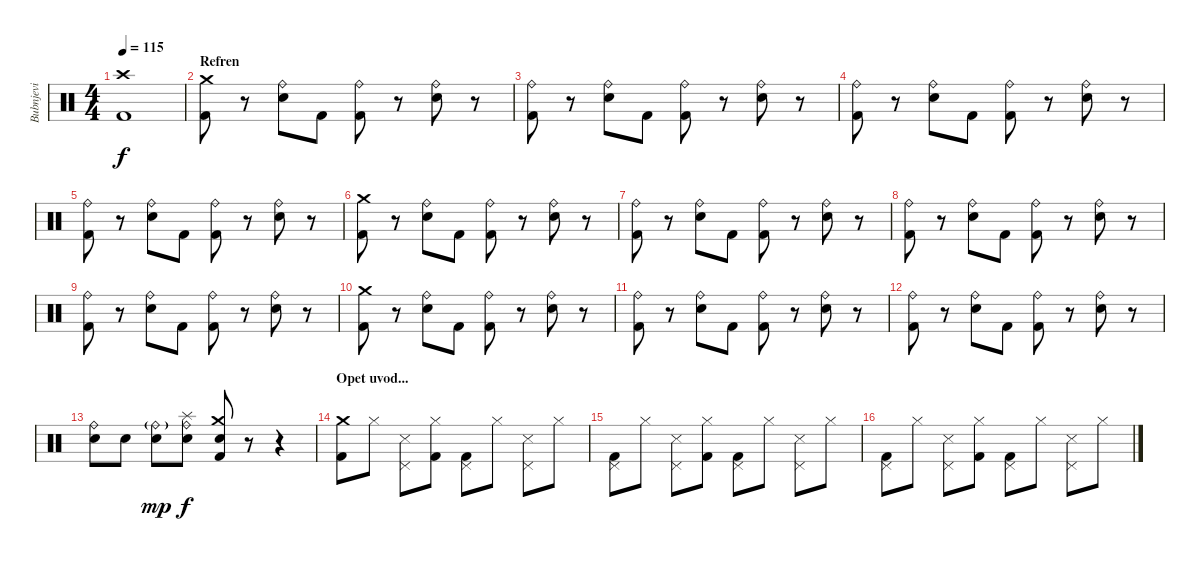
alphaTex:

\track ("Bubnjevi" "Bubnjevi") {instrument percussion}
\staff {score}
\articulation defaults
\ts (4 4)
\tempo 115
\clef neutral
\ks c
("Crash high (hit)" "Kick (hit) 2").1{dy f} |
\section ("" "Refren")
("Crash medium (hit)" "Kick (hit) 2").8 r.8 ("Ride (bell)" "Electric Snare (hit)").8 "Kick (hit) 2".8 ("Ride (bell)" "Kick (hit) 2").8 r.8 ("Ride (bell)" "Electric Snare (hit)").8 r.8 |
("Ride (bell)" "Kick (hit) 2").8 r.8 ("Ride (bell)" "Electric Snare (hit)").8 "Kick (hit) 2".8 ("Ride (bell)" "Kick (hit) 2").8 r.8 ("Ride (bell)" "Electric Snare (hit)").8 r.8 |
("Ride (bell)" "Kick (hit) 2").8 r.8 ("Ride (bell)" "Electric Snare (hit)").8 "Kick (hit) 2".8 ("Ride (bell)" "Kick (hit) 2").8 r.8 ("Ride (bell)" "Electric Snare (hit)").8 r.8 |
("Ride (bell)" "Kick (hit) 2").8 r.8 ("Ride (bell)" "Electric Snare (hit)").8 "Kick (hit) 2".8 ("Ride (bell)" "Kick (hit) 2").8 r.8 ("Ride (bell)" "Electric Snare (hit)").8 r.8 |
("Crash medium (hit)" "Kick (hit) 2").8 r.8 ("Ride (bell)" "Electric Snare (hit)").8 "Kick (hit) 2".8 ("Ride (bell)" "Kick (hit) 2").8 r.8 ("Ride (bell)" "Electric Snare (hit)").8 r.8 |
("Ride (bell)" "Kick (hit) 2").8 r.8 ("Ride (bell)" "Electric Snare (hit)").8 "Kick (hit) 2".8 ("Ride (bell)" "Kick (hit) 2").8 r.8 ("Ride (bell)" "Electric Snare (hit)").8 r.8 |
("Ride (bell)" "Kick (hit) 2").8 r.8 ("Ride (bell)" "Electric Snare (hit)").8 "Kick (hit) 2".8 ("Ride (bell)" "Kick (hit) 2").8 r.8 ("Ride (bell)" "Electric Snare (hit)").8 r.8 |
("Ride (bell)" "Kick (hit) 2").8 r.8 ("Ride (bell)" "Electric Snare (hit)").8 "Kick (hit) 2".8 ("Ride (bell)" "Kick (hit) 2").8 r.8 ("Ride (bell)" "Electric Snare (hit)").8 r.8 |
("Crash medium (hit)" "Kick (hit) 2").8 r.8 ("Ride (bell)" "Electric Snare (hit)").8 "Kick (hit) 2".8 ("Ride (bell)" "Kick (hit) 2").8 r.8 ("Ride (bell)" "Electric Snare (hit)").8 r.8 |
("Ride (bell)" "Kick (hit) 2").8 r.8 ("Ride (bell)" "Electric Snare (hit)").8 "Kick (hit) 2".8 ("Ride (bell)" "Kick (hit) 2").8 r.8 ("Ride (bell)" "Electric Snare (hit)").8 r.8 |
("Ride (bell)" "Kick (hit) 2").8 r.8 ("Ride (bell)" "Electric Snare (hit)").8 "Kick (hit) 2".8 ("Ride (bell)" "Kick (hit) 2").8 r.8 ("Ride (bell)" "Electric Snare (hit)").8 r.8 |
("Ride (bell)" "Electric Snare (hit)").8 "Electric Snare (hit)".8 ("Ride (bell)"{g} "Electric Snare (hit)").8{dy mp} ("Ride (bell)" "Electric Snare (hit)" "Splash (hit)").8{dy f} ("Crash medium (hit)" "Kick (hit) 2" "Electric Snare (hit)").8 r.8 r.4 |
\section ("" "Opet uvod...")
("Crash medium (hit)" "Kick (hit) 2").8 "Hi-Hat (closed)".8 ("Pedal Hi-Hat (hit)" "Snare (side stick) 3").8 ("Hi-Hat (closed)" "Kick (hit) 2").8 ("Pedal Hi-Hat (hit)" "Kick (hit) 2").8 "Hi-Hat (closed)".8 ("Pedal Hi-Hat (hit)" "Snare (side stick) 3").8 "Hi-Hat (closed)".8 |
("Pedal Hi-Hat (hit)" "Kick (hit) 2").8 "Hi-Hat (closed)".8 ("Pedal Hi-Hat (hit)" "Snare (side stick) 3").8 ("Hi-Hat (closed)" "Kick (hit) 2").8 ("Pedal Hi-Hat (hit)" "Kick (hit) 2").8 "Hi-Hat (closed)".8 ("Pedal Hi-Hat (hit)" "Snare (side stick) 3").8 "Hi-Hat (closed)".8 |
("Pedal Hi-Hat (hit)" "Kick (hit) 2").8 "Hi-Hat (closed)".8 ("Pedal Hi-Hat (hit)" "Snare (side stick) 3").8 ("Hi-Hat (closed)" "Kick (hit) 2").8 ("Pedal Hi-Hat (hit)" "Kick (hit) 2").8 "Hi-Hat (closed)".8 ("Pedal Hi-Hat (hit)" "Snare (side stick) 3").8 "Hi-Hat (closed)".8
